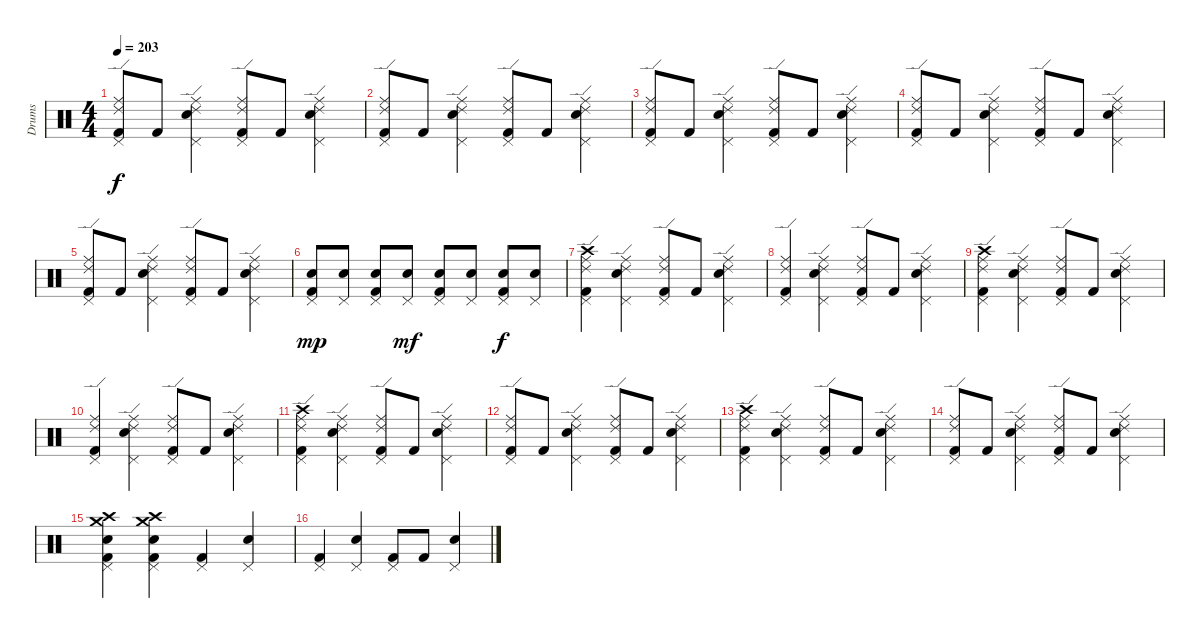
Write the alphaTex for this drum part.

\track ("Drums" "Drums") {instrument percussion}
\staff {score}
\articulation defaults
\ts (4 4)
\tempo 203
\clef neutral
\ks c
("Ride (edge) 2" "Pedal Hi-Hat (hit)" "Ride (middle)" "Kick (hit) 2").8{dy f} "Kick (hit) 2".8 ("Ride (edge) 2" "Pedal Hi-Hat (hit)" "Ride (middle)" "Snare (hit) 2").4 ("Ride (edge) 2" "Pedal Hi-Hat (hit)" "Ride (middle)" "Kick (hit) 2").8 "Kick (hit) 2".8 ("Ride (edge) 2" "Pedal Hi-Hat (hit)" "Ride (middle)" "Snare (hit) 2").4 |
("Ride (edge) 2" "Pedal Hi-Hat (hit)" "Ride (middle)" "Kick (hit) 2").8 "Kick (hit) 2".8 ("Ride (edge) 2" "Pedal Hi-Hat (hit)" "Ride (middle)" "Snare (hit) 2").4 ("Ride (edge) 2" "Pedal Hi-Hat (hit)" "Ride (middle)" "Kick (hit) 2").8 "Kick (hit) 2".8 ("Ride (edge) 2" "Pedal Hi-Hat (hit)" "Ride (middle)" "Snare (hit) 2").4 |
("Ride (edge) 2" "Pedal Hi-Hat (hit)" "Ride (middle)" "Kick (hit) 2").8 "Kick (hit) 2".8 ("Ride (edge) 2" "Pedal Hi-Hat (hit)" "Ride (middle)" "Snare (hit) 2").4 ("Ride (edge) 2" "Pedal Hi-Hat (hit)" "Ride (middle)" "Kick (hit) 2").8 "Kick (hit) 2".8 ("Ride (edge) 2" "Pedal Hi-Hat (hit)" "Ride (middle)" "Snare (hit) 2").4 |
("Ride (edge) 2" "Pedal Hi-Hat (hit)" "Ride (middle)" "Kick (hit) 2").8 "Kick (hit) 2".8 ("Ride (edge) 2" "Snare (hit) 2" "Ride (middle)" "Pedal Hi-Hat (hit)").4 ("Ride (edge) 2" "Pedal Hi-Hat (hit)" "Kick (hit) 2" "Ride (middle)").8 "Kick (hit) 2".8 ("Ride (edge) 2" "Pedal Hi-Hat (hit)" "Snare (hit) 2" "Ride (middle)").4 |
("Ride (edge) 2" "Pedal Hi-Hat (hit)" "Ride (middle)" "Kick (hit) 2").8 "Kick (hit) 2".8 ("Ride (edge) 2" "Pedal Hi-Hat (hit)" "Ride (middle)" "Snare (hit) 2").4 ("Ride (edge) 2" "Pedal Hi-Hat (hit)" "Ride (middle)" "Kick (hit) 2").8 "Kick (hit) 2".8 ("Ride (edge) 2" "Pedal Hi-Hat (hit)" "Ride (middle)" "Snare (hit) 2").4 |
("Pedal Hi-Hat (hit)" "Kick (hit) 2" "Snare (hit) 2").8{dy mp} ("Pedal Hi-Hat (hit)" "Snare (hit) 2").8 ("Pedal Hi-Hat (hit)" "Kick (hit) 2" "Snare (hit) 2").8 ("Pedal Hi-Hat (hit)" "Snare (hit) 2").8{dy mf} ("Pedal Hi-Hat (hit)" "Kick (hit) 2" "Snare (hit) 2").8 ("Pedal Hi-Hat (hit)" "Snare (hit) 2").8 ("Pedal Hi-Hat (hit)" "Kick (hit) 2" "Snare (hit) 2").8{dy f} ("Pedal Hi-Hat (hit)" "Snare (hit) 2").8 |
("Ride (edge) 2" "Ride (middle)" "Pedal Hi-Hat (hit)" "Kick (hit) 2" "Crash high (hit)").4 ("Ride (edge) 2" "Ride (middle)" "Pedal Hi-Hat (hit)" "Snare (hit) 2").4 ("Ride (edge) 2" "Ride (middle)" "Pedal Hi-Hat (hit)" "Kick (hit) 2").8 "Kick (hit) 2".8 ("Ride (edge) 2" "Ride (middle)" "Pedal Hi-Hat (hit)" "Snare (hit) 2").4 |
("Ride (edge) 2" "Ride (middle)" "Pedal Hi-Hat (hit)" "Kick (hit) 2").4 ("Ride (edge) 2" "Ride (middle)" "Pedal Hi-Hat (hit)" "Snare (hit) 2").4 ("Ride (edge) 2" "Ride (middle)" "Pedal Hi-Hat (hit)" "Kick (hit) 2").8 "Kick (hit) 2".8 ("Ride (edge) 2" "Ride (middle)" "Pedal Hi-Hat (hit)" "Snare (hit) 2").4 |
("Ride (edge) 2" "Ride (middle)" "Pedal Hi-Hat (hit)" "Kick (hit) 2" "Crash high (hit)").4 ("Ride (edge) 2" "Ride (middle)" "Pedal Hi-Hat (hit)" "Snare (hit) 2").4 ("Ride (edge) 2" "Ride (middle)" "Pedal Hi-Hat (hit)" "Kick (hit) 2").8 "Kick (hit) 2".8 ("Ride (edge) 2" "Ride (middle)" "Pedal Hi-Hat (hit)" "Snare (hit) 2").4 |
("Ride (edge) 2" "Ride (middle)" "Pedal Hi-Hat (hit)" "Kick (hit) 2").4 ("Ride (edge) 2" "Ride (middle)" "Pedal Hi-Hat (hit)" "Snare (hit) 2").4 ("Ride (edge) 2" "Ride (middle)" "Pedal Hi-Hat (hit)" "Kick (hit) 2").8 "Kick (hit) 2".8 ("Ride (edge) 2" "Ride (middle)" "Pedal Hi-Hat (hit)" "Snare (hit) 2").4 |
("Ride (edge) 2" "Ride (middle)" "Pedal Hi-Hat (hit)" "Kick (hit) 2" "Crash high (hit)").4 ("Ride (edge) 2" "Ride (middle)" "Pedal Hi-Hat (hit)" "Snare (hit) 2").4 ("Ride (edge) 2" "Ride (middle)" "Pedal Hi-Hat (hit)" "Kick (hit) 2").8 "Kick (hit) 2".8 ("Ride (edge) 2" "Ride (middle)" "Pedal Hi-Hat (hit)" "Snare (hit) 2").4 |
("Ride (edge) 2" "Ride (middle)" "Pedal Hi-Hat (hit)" "Kick (hit) 2").8 "Kick (hit) 2".8 ("Ride (edge) 2" "Ride (middle)" "Pedal Hi-Hat (hit)" "Snare (hit) 2").4 ("Ride (edge) 2" "Ride (middle)" "Pedal Hi-Hat (hit)" "Kick (hit) 2").8 "Kick (hit) 2".8 ("Ride (edge) 2" "Ride (middle)" "Pedal Hi-Hat (hit)" "Snare (hit) 2").4 |
("Crash high (hit)" "Ride (edge) 2" "Ride (middle)" "Pedal Hi-Hat (hit)" "Kick (hit) 2").4 ("Ride (edge) 2" "Ride (middle)" "Pedal Hi-Hat (hit)" "Snare (hit) 2").4 ("Ride (edge) 2" "Ride (middle)" "Pedal Hi-Hat (hit)" "Kick (hit) 2").8 "Kick (hit) 2".8 ("Ride (edge) 2" "Ride (middle)" "Pedal Hi-Hat (hit)" "Snare (hit) 2").4 |
("Ride (edge) 2" "Ride (middle)" "Pedal Hi-Hat (hit)" "Kick (hit) 2").8 "Kick (hit) 2".8 ("Ride (edge) 2" "Ride (middle)" "Pedal Hi-Hat (hit)" "Snare (hit) 2").4 ("Ride (edge) 2" "Ride (middle)" "Pedal Hi-Hat (hit)" "Kick (hit) 2").8 "Kick (hit) 2".8 ("Ride (edge) 2" "Ride (middle)" "Pedal Hi-Hat (hit)" "Snare (hit) 2").4 |
("Pedal Hi-Hat (hit)" "Crash medium (hit)" "Crash high (hit)" "Kick (hit) 2" "Snare (hit) 2").4 ("Pedal Hi-Hat (hit)" "Crash medium (hit)" "Crash high (hit)" "Kick (hit) 2" "Snare (hit) 2").4 ("Pedal Hi-Hat (hit)" "Kick (hit) 2").4 ("Pedal Hi-Hat (hit)" "Snare (hit) 2").4 |
("Pedal Hi-Hat (hit)" "Kick (hit) 2").4 ("Pedal Hi-Hat (hit)" "Snare (hit) 2").4 ("Pedal Hi-Hat (hit)" "Kick (hit) 2").8 "Kick (hit) 2".8 ("Pedal Hi-Hat (hit)" "Snare (hit) 2").4
